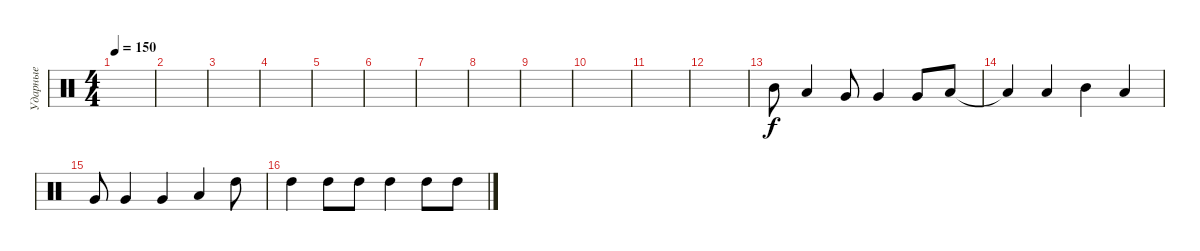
\track ("Ударные" "Ударные") {instrument percussion}
\staff {score}
\articulation defaults
\ts (4 4)
\tempo 150
\clef neutral
\ks c
|
|
|
|
|
|
|
|
|
|
|
|
"Mid Tom (hit)".8 "Low Tom (hit)".4 "Very Low Tom (hit)".8 "Very Low Tom (hit)".4 "Very Low Tom (hit)".8 "Low Floor Tom (hit)".8 |
"Low Floor Tom (hit)"{t}.4 "Low Tom (hit)".4 "Mid Tom (hit)".4 "Low Tom (hit)".4 |
"Very Low Tom (hit)".8 "Very Low Tom (hit)".4 "Very Low Tom (hit)".4 "Low Floor Tom (hit)".4 "High Tom (hit)".8 |
"High Tom (hit)".4 "High Tom (hit)".8 "High Tom (hit)".8 "High Tom (hit)".4 "High Tom (hit)".8 "High Tom (hit)".8
